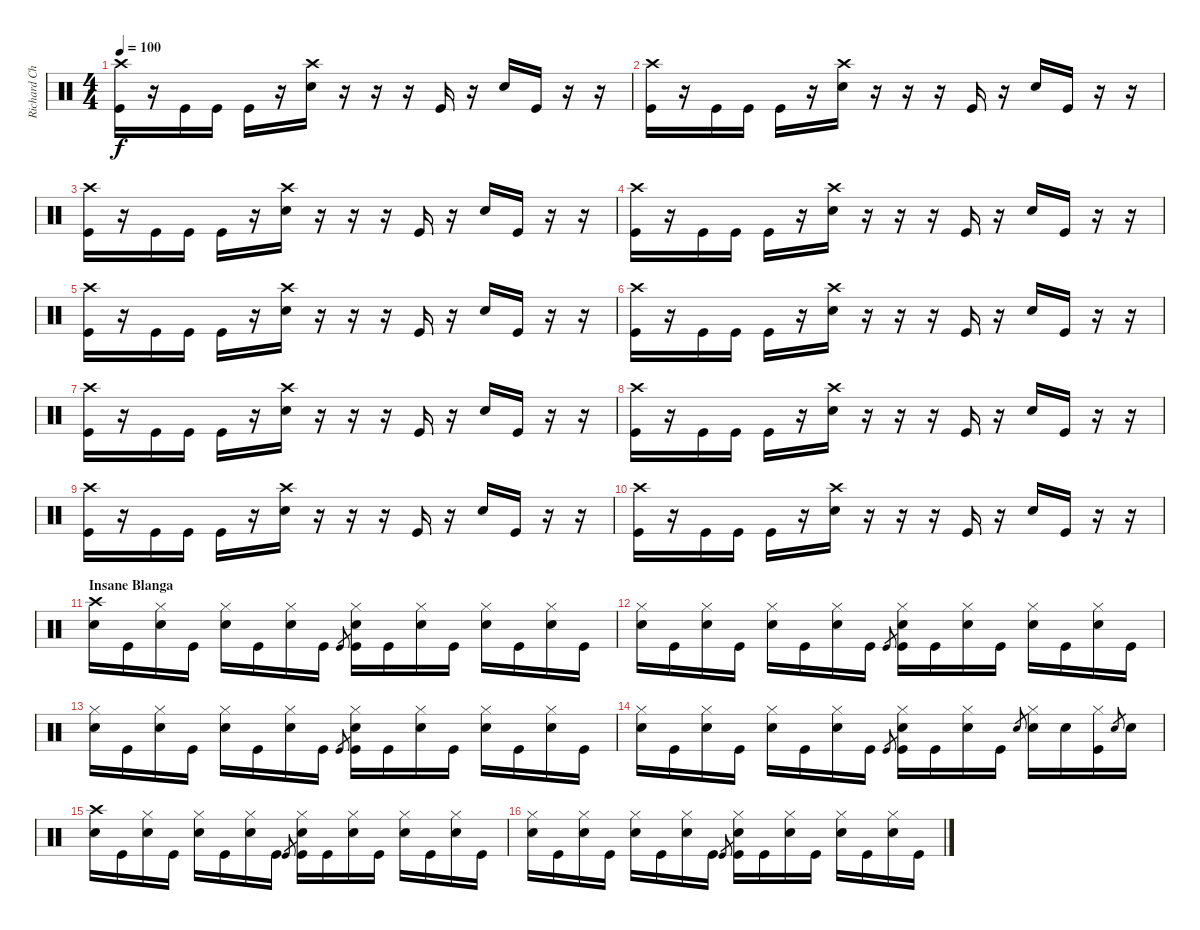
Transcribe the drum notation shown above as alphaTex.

\track ("Richard Chadwick - Drums" "Richard Ch") {instrument percussion}
\staff {score}
\articulation defaults
\ts (4 4)
\tempo 100
\clef neutral
\ks c
("Crash high (hit)" "Kick (hit)").16{dy f} r.16 "Kick (hit)".16 "Kick (hit)".16 "Kick (hit)".16 r.16 ("Crash high (hit)" "Electric Snare (hit)").16 r.16 r.16 r.16 "Kick (hit)".16 r.16 "Electric Snare (hit)".16 "Kick (hit)".16 r.16 r.16 |
("Crash high (hit)" "Kick (hit)").16 r.16 "Kick (hit)".16 "Kick (hit)".16 "Kick (hit)".16 r.16 ("Crash high (hit)" "Electric Snare (hit)").16 r.16 r.16 r.16 "Kick (hit)".16 r.16 "Electric Snare (hit)".16 "Kick (hit)".16 r.16 r.16 |
("Crash high (hit)" "Kick (hit)").16 r.16 "Kick (hit)".16 "Kick (hit)".16 "Kick (hit)".16 r.16 ("Crash high (hit)" "Electric Snare (hit)").16 r.16 r.16 r.16 "Kick (hit)".16 r.16 "Electric Snare (hit)".16 "Kick (hit)".16 r.16 r.16 |
("Crash high (hit)" "Kick (hit)").16 r.16 "Kick (hit)".16 "Kick (hit)".16 "Kick (hit)".16 r.16 ("Crash high (hit)" "Electric Snare (hit)").16 r.16 r.16 r.16 "Kick (hit)".16 r.16 "Electric Snare (hit)".16 "Kick (hit)".16 r.16 r.16 |
("Crash high (hit)" "Kick (hit)").16 r.16 "Kick (hit)".16 "Kick (hit)".16 "Kick (hit)".16 r.16 ("Crash high (hit)" "Electric Snare (hit)").16 r.16 r.16 r.16 "Kick (hit)".16 r.16 "Electric Snare (hit)".16 "Kick (hit)".16 r.16 r.16 |
("Crash high (hit)" "Kick (hit)").16 r.16 "Kick (hit)".16 "Kick (hit)".16 "Kick (hit)".16 r.16 ("Crash high (hit)" "Electric Snare (hit)").16 r.16 r.16 r.16 "Kick (hit)".16 r.16 "Electric Snare (hit)".16 "Kick (hit)".16 r.16 r.16 |
("Crash high (hit)" "Kick (hit)").16 r.16 "Kick (hit)".16 "Kick (hit)".16 "Kick (hit)".16 r.16 ("Crash high (hit)" "Electric Snare (hit)").16 r.16 r.16 r.16 "Kick (hit)".16 r.16 "Electric Snare (hit)".16 "Kick (hit)".16 r.16 r.16 |
("Crash high (hit)" "Kick (hit)").16 r.16 "Kick (hit)".16 "Kick (hit)".16 "Kick (hit)".16 r.16 ("Crash high (hit)" "Electric Snare (hit)").16 r.16 r.16 r.16 "Kick (hit)".16 r.16 "Electric Snare (hit)".16 "Kick (hit)".16 r.16 r.16 |
("Crash high (hit)" "Kick (hit)").16 r.16 "Kick (hit)".16 "Kick (hit)".16 "Kick (hit)".16 r.16 ("Crash high (hit)" "Electric Snare (hit)").16 r.16 r.16 r.16 "Kick (hit)".16 r.16 "Electric Snare (hit)".16 "Kick (hit)".16 r.16 r.16 |
("Crash high (hit)" "Kick (hit)").16 r.16 "Kick (hit)".16 "Kick (hit)".16 "Kick (hit)".16 r.16 ("Crash high (hit)" "Electric Snare (hit)").16 r.16 r.16 r.16 "Kick (hit)".16 r.16 "Electric Snare (hit)".16 "Kick (hit)".16 r.16 r.16 |
\section ("" "Insane Blanga")
("Crash high (hit)" "Snare (hit) 2").16 "Kick (hit)".16 ("Hi-Hat (closed)" "Snare (hit) 2").16 "Kick (hit)".16 ("Hi-Hat (closed)" "Snare (hit) 2").16 "Kick (hit)".16 ("Hi-Hat (closed)" "Snare (hit) 2").16 "Kick (hit)".16 "Kick (hit)".8{gr} ("Hi-Hat (closed)" "Snare (hit) 2" "Kick (hit)").16 "Kick (hit)".16 ("Hi-Hat (closed)" "Snare (hit) 2").16 "Kick (hit)".16 ("Hi-Hat (closed)" "Snare (hit) 2").16 "Kick (hit)".16 ("Hi-Hat (closed)" "Snare (hit) 2").16 "Kick (hit)".16 |
("Hi-Hat (closed)" "Snare (hit) 2").16 "Kick (hit)".16 ("Hi-Hat (closed)" "Snare (hit) 2").16 "Kick (hit)".16 ("Hi-Hat (closed)" "Snare (hit) 2").16 "Kick (hit)".16 ("Hi-Hat (closed)" "Snare (hit) 2").16 "Kick (hit)".16 "Kick (hit)".8{gr} ("Hi-Hat (closed)" "Snare (hit) 2" "Kick (hit)").16 "Kick (hit)".16 ("Hi-Hat (closed)" "Snare (hit) 2").16 "Kick (hit)".16 ("Hi-Hat (closed)" "Snare (hit) 2").16 "Kick (hit)".16 ("Hi-Hat (closed)" "Snare (hit) 2").16 "Kick (hit)".16 |
("Hi-Hat (closed)" "Snare (hit) 2").16 "Kick (hit)".16 ("Hi-Hat (closed)" "Snare (hit) 2").16 "Kick (hit)".16 ("Hi-Hat (closed)" "Snare (hit) 2").16 "Kick (hit)".16 ("Hi-Hat (closed)" "Snare (hit) 2").16 "Kick (hit)".16 "Kick (hit)".8{gr} ("Hi-Hat (closed)" "Snare (hit) 2" "Kick (hit)").16 "Kick (hit)".16 ("Hi-Hat (closed)" "Snare (hit) 2").16 "Kick (hit)".16 ("Hi-Hat (closed)" "Snare (hit) 2").16 "Kick (hit)".16 ("Hi-Hat (closed)" "Snare (hit) 2").16 "Kick (hit)".16 |
("Hi-Hat (closed)" "Snare (hit) 2").16 "Kick (hit)".16 ("Hi-Hat (closed)" "Snare (hit) 2").16 "Kick (hit)".16 ("Hi-Hat (closed)" "Snare (hit) 2").16 "Kick (hit)".16 ("Hi-Hat (closed)" "Snare (hit) 2").16 "Kick (hit)".16 "Kick (hit)".8{gr} ("Hi-Hat (closed)" "Snare (hit) 2" "Kick (hit)").16 "Kick (hit)".16 ("Hi-Hat (closed)" "Snare (hit) 2").16 "Kick (hit)".16 "Snare (hit) 2".8{gr} ("Hi-Hat (closed)" "Snare (hit) 2").16 "Snare (hit) 2".16 ("Hi-Hat (closed)" "Kick (hit)").16 "Snare (hit) 2".8{gr} "Snare (hit) 2".16 |
("Crash high (hit)" "Snare (hit) 2").16 "Kick (hit)".16 ("Hi-Hat (closed)" "Snare (hit) 2").16 "Kick (hit)".16 ("Hi-Hat (closed)" "Snare (hit) 2").16 "Kick (hit)".16 ("Hi-Hat (closed)" "Snare (hit) 2").16 "Kick (hit)".16 "Kick (hit)".8{gr} ("Hi-Hat (closed)" "Snare (hit) 2" "Kick (hit)").16 "Kick (hit)".16 ("Hi-Hat (closed)" "Snare (hit) 2").16 "Kick (hit)".16 ("Hi-Hat (closed)" "Snare (hit) 2").16 "Kick (hit)".16 ("Hi-Hat (closed)" "Snare (hit) 2").16 "Kick (hit)".16 |
("Hi-Hat (closed)" "Snare (hit) 2").16 "Kick (hit)".16 ("Hi-Hat (closed)" "Snare (hit) 2").16 "Kick (hit)".16 ("Hi-Hat (closed)" "Snare (hit) 2").16 "Kick (hit)".16 ("Hi-Hat (closed)" "Snare (hit) 2").16 "Kick (hit)".16 "Kick (hit)".8{gr} ("Hi-Hat (closed)" "Snare (hit) 2" "Kick (hit)").16 "Kick (hit)".16 ("Hi-Hat (closed)" "Snare (hit) 2").16 "Kick (hit)".16 ("Hi-Hat (closed)" "Snare (hit) 2").16 "Kick (hit)".16 ("Hi-Hat (closed)" "Snare (hit) 2").16 "Kick (hit)".16
